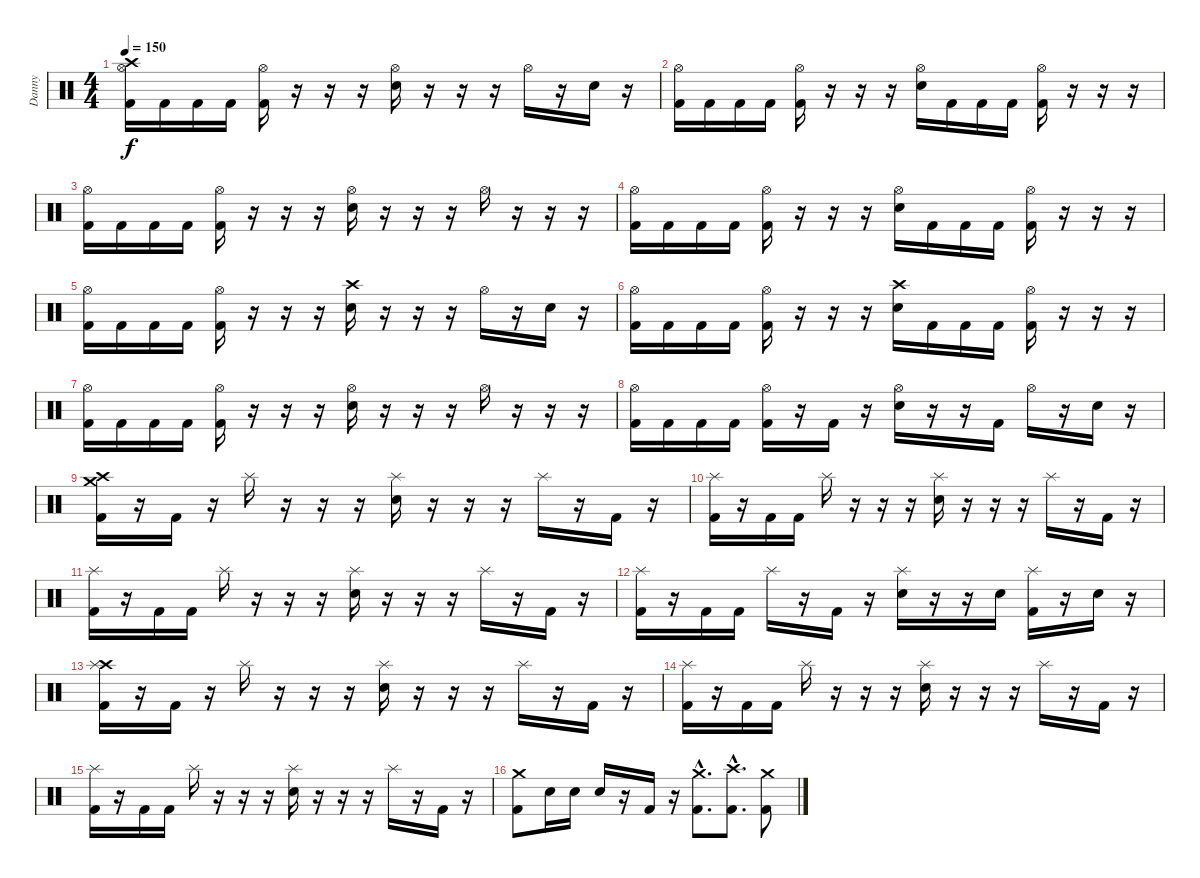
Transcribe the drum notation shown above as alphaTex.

\track ("Danny" "Danny") {instrument percussion}
\staff {score}
\articulation defaults
\ts (4 4)
\tempo 150
\clef neutral
\ks c
("Crash high (hit)" "Hi-Hat (open)" "Kick (hit) 2").16{dy f} "Kick (hit) 2".16 "Kick (hit) 2".16 "Kick (hit) 2".16 ("Hi-Hat (open)" "Kick (hit) 2").16 r.16 r.16 r.16 ("Hi-Hat (open)" "Snare (hit) 2").16 r.16 r.16 r.16 "Hi-Hat (open)".16 r.16 "Snare (hit) 2".16 r.16 |
("Hi-Hat (open)" "Kick (hit) 2").16 "Kick (hit) 2".16 "Kick (hit) 2".16 "Kick (hit) 2".16 ("Hi-Hat (open)" "Kick (hit) 2").16 r.16 r.16 r.16 ("Hi-Hat (open)" "Snare (hit) 2").16 "Kick (hit) 2".16 "Kick (hit) 2".16 "Kick (hit) 2".16 ("Hi-Hat (open)" "Kick (hit) 2").16 r.16 r.16 r.16 |
("Hi-Hat (open)" "Kick (hit) 2").16 "Kick (hit) 2".16 "Kick (hit) 2".16 "Kick (hit) 2".16 ("Hi-Hat (open)" "Kick (hit) 2").16 r.16 r.16 r.16 ("Hi-Hat (open)" "Snare (hit) 2").16 r.16 r.16 r.16 "Hi-Hat (open)".16 r.16 r.16 r.16 |
("Hi-Hat (open)" "Kick (hit) 2").16 "Kick (hit) 2".16 "Kick (hit) 2".16 "Kick (hit) 2".16 ("Hi-Hat (open)" "Kick (hit) 2").16 r.16 r.16 r.16 ("Hi-Hat (open)" "Snare (hit) 2").16 "Kick (hit) 2".16 "Kick (hit) 2".16 "Kick (hit) 2".16 ("Hi-Hat (open)" "Kick (hit) 2").16 r.16 r.16 r.16 |
("Hi-Hat (open)" "Kick (hit) 2").16 "Kick (hit) 2".16 "Kick (hit) 2".16 "Kick (hit) 2".16 ("Hi-Hat (open)" "Kick (hit) 2").16 r.16 r.16 r.16 ("Crash high (hit)" "Snare (hit) 2").16 r.16 r.16 r.16 "Hi-Hat (open)".16 r.16 "Snare (hit) 2".16 r.16 |
("Hi-Hat (open)" "Kick (hit) 2").16 "Kick (hit) 2".16 "Kick (hit) 2".16 "Kick (hit) 2".16 ("Hi-Hat (open)" "Kick (hit) 2").16 r.16 r.16 r.16 ("Crash high (hit)" "Snare (hit) 2").16 "Kick (hit) 2".16 "Kick (hit) 2".16 "Kick (hit) 2".16 ("Hi-Hat (open)" "Kick (hit) 2").16 r.16 r.16 r.16 |
("Hi-Hat (open)" "Kick (hit) 2").16 "Kick (hit) 2".16 "Kick (hit) 2".16 "Kick (hit) 2".16 ("Hi-Hat (open)" "Kick (hit) 2").16 r.16 r.16 r.16 ("Hi-Hat (open)" "Snare (hit) 2").16 r.16 r.16 r.16 "Hi-Hat (open)".16 r.16 r.16 r.16 |
("Hi-Hat (open)" "Kick (hit) 2").16 "Kick (hit) 2".16 "Kick (hit) 2".16 "Kick (hit) 2".16 ("Hi-Hat (open)" "Kick (hit) 2").16 r.16 "Kick (hit) 2".16 r.16 ("Hi-Hat (open)" "Snare (hit) 2").16 r.16 r.16 "Kick (hit) 2".16 "Hi-Hat (open)".16 r.16 "Snare (hit) 2".16 r.16 |
("Crash high (hit)" "Crash medium (hit)" "Kick (hit) 2").16 r.16 "Kick (hit) 2".16 r.16 "Splash (hit)".16 r.16 r.16 r.16 ("Splash (hit)" "Snare (hit) 2").16 r.16 r.16 r.16 "Splash (hit)".16 r.16 "Kick (hit) 2".16 r.16 |
("Splash (hit)" "Kick (hit) 2").16 r.16 "Kick (hit) 2".16 "Kick (hit) 2".16 "Splash (hit)".16 r.16 r.16 r.16 ("Splash (hit)" "Snare (hit) 2").16 r.16 r.16 r.16 "Splash (hit)".16 r.16 "Kick (hit) 2".16 r.16 |
("Splash (hit)" "Kick (hit) 2").16 r.16 "Kick (hit) 2".16 "Kick (hit) 2".16 "Splash (hit)".16 r.16 r.16 r.16 ("Splash (hit)" "Snare (hit) 2").16 r.16 r.16 r.16 "Splash (hit)".16 r.16 "Kick (hit) 2".16 r.16 |
("Splash (hit)" "Kick (hit) 2").16 r.16 "Kick (hit) 2".16 "Kick (hit) 2".16 "Splash (hit)".16 r.16 "Kick (hit) 2".16 r.16 ("Splash (hit)" "Snare (hit) 2").16 r.16 r.16 "Snare (hit) 2".16 ("Splash (hit)" "Kick (hit) 2").16 r.16 "Snare (hit) 2".16 r.16 |
("Crash high (hit)" "Splash (hit)" "Kick (hit) 2").16 r.16 "Kick (hit) 2".16 r.16 "Splash (hit)".16 r.16 r.16 r.16 ("Splash (hit)" "Snare (hit) 2").16 r.16 r.16 r.16 "Splash (hit)".16 r.16 "Kick (hit) 2".16 r.16 |
("Splash (hit)" "Kick (hit) 2").16 r.16 "Kick (hit) 2".16 "Kick (hit) 2".16 "Splash (hit)".16 r.16 r.16 r.16 ("Splash (hit)" "Snare (hit) 2").16 r.16 r.16 r.16 "Splash (hit)".16 r.16 "Kick (hit) 2".16 r.16 |
("Splash (hit)" "Kick (hit) 2").16 r.16 "Kick (hit) 2".16 "Kick (hit) 2".16 "Splash (hit)".16 r.16 r.16 r.16 ("Splash (hit)" "Snare (hit) 2").16 r.16 r.16 r.16 "Splash (hit)".16 r.16 "Kick (hit) 2".16 r.16 |
("Crash medium (hit)" "Kick (hit) 2").8 "Snare (hit) 2".16 "Snare (hit) 2".16 "Snare (hit) 2".16 r.16 "Kick (hit) 2".16 r.16 ("Crash medium (hit)"{hac} "Kick (hit) 2"{hac}).8{d} ("Crash high (hit)"{hac} "Kick (hit) 2"{hac}).8{d} ("Crash medium (hit)" "Kick (hit) 2").8
